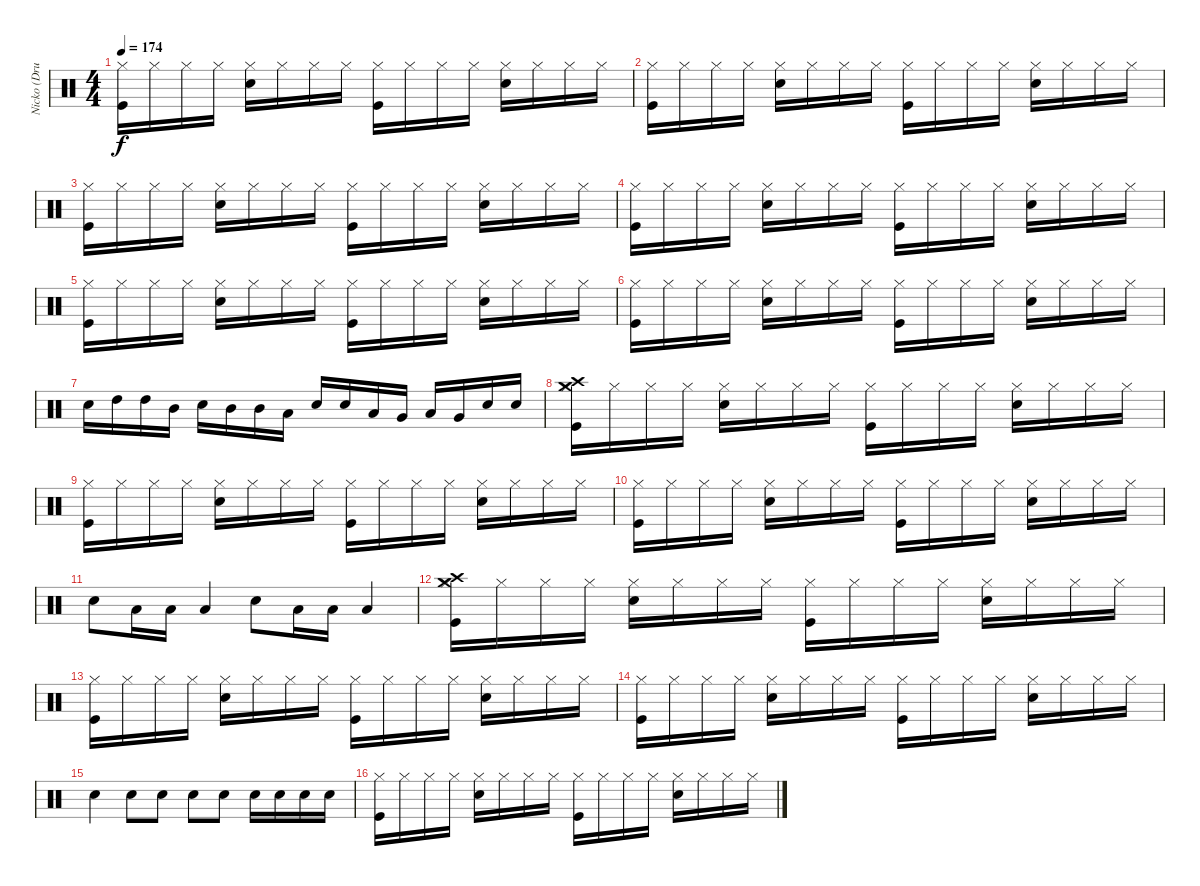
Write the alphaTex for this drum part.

\track ("Nicko (Drums)" "Nicko (Dru") {instrument percussion}
\staff {score}
\articulation defaults
\ts (4 4)
\tempo 174
\clef neutral
\ks c
("Hi-Hat (closed)" "Kick (hit)").16{dy f} "Hi-Hat (closed)".16 "Hi-Hat (closed)".16 "Hi-Hat (closed)".16 ("Hi-Hat (closed)" "Electric Snare (hit)").16 "Hi-Hat (closed)".16 "Hi-Hat (closed)".16 "Hi-Hat (closed)".16 ("Hi-Hat (closed)" "Kick (hit)").16 "Hi-Hat (closed)".16 "Hi-Hat (closed)".16 "Hi-Hat (closed)".16 ("Hi-Hat (closed)" "Electric Snare (hit)").16 "Hi-Hat (closed)".16 "Hi-Hat (closed)".16 "Hi-Hat (closed)".16 |
("Hi-Hat (closed)" "Kick (hit)").16 "Hi-Hat (closed)".16 "Hi-Hat (closed)".16 "Hi-Hat (closed)".16 ("Hi-Hat (closed)" "Electric Snare (hit)").16 "Hi-Hat (closed)".16 "Hi-Hat (closed)".16 "Hi-Hat (closed)".16 ("Hi-Hat (closed)" "Kick (hit)").16 "Hi-Hat (closed)".16 "Hi-Hat (closed)".16 "Hi-Hat (closed)".16 ("Hi-Hat (closed)" "Electric Snare (hit)").16 "Hi-Hat (closed)".16 "Hi-Hat (closed)".16 "Hi-Hat (closed)".16 |
("Hi-Hat (closed)" "Kick (hit)").16 "Hi-Hat (closed)".16 "Hi-Hat (closed)".16 "Hi-Hat (closed)".16 ("Hi-Hat (closed)" "Electric Snare (hit)").16 "Hi-Hat (closed)".16 "Hi-Hat (closed)".16 "Hi-Hat (closed)".16 ("Hi-Hat (closed)" "Kick (hit)").16 "Hi-Hat (closed)".16 "Hi-Hat (closed)".16 "Hi-Hat (closed)".16 ("Hi-Hat (closed)" "Electric Snare (hit)").16 "Hi-Hat (closed)".16 "Hi-Hat (closed)".16 "Hi-Hat (closed)".16 |
("Hi-Hat (closed)" "Kick (hit)").16 "Hi-Hat (closed)".16 "Hi-Hat (closed)".16 "Hi-Hat (closed)".16 ("Hi-Hat (closed)" "Electric Snare (hit)").16 "Hi-Hat (closed)".16 "Hi-Hat (closed)".16 "Hi-Hat (closed)".16 ("Hi-Hat (closed)" "Kick (hit)").16 "Hi-Hat (closed)".16 "Hi-Hat (closed)".16 "Hi-Hat (closed)".16 ("Hi-Hat (closed)" "Electric Snare (hit)").16 "Hi-Hat (closed)".16 "Hi-Hat (closed)".16 "Hi-Hat (closed)".16 |
("Hi-Hat (closed)" "Kick (hit)").16 "Hi-Hat (closed)".16 "Hi-Hat (closed)".16 "Hi-Hat (closed)".16 ("Hi-Hat (closed)" "Electric Snare (hit)").16 "Hi-Hat (closed)".16 "Hi-Hat (closed)".16 "Hi-Hat (closed)".16 ("Hi-Hat (closed)" "Kick (hit)").16 "Hi-Hat (closed)".16 "Hi-Hat (closed)".16 "Hi-Hat (closed)".16 ("Hi-Hat (closed)" "Electric Snare (hit)").16 "Hi-Hat (closed)".16 "Hi-Hat (closed)".16 "Hi-Hat (closed)".16 |
("Hi-Hat (closed)" "Kick (hit)").16 "Hi-Hat (closed)".16 "Hi-Hat (closed)".16 "Hi-Hat (closed)".16 ("Hi-Hat (closed)" "Electric Snare (hit)").16 "Hi-Hat (closed)".16 "Hi-Hat (closed)".16 "Hi-Hat (closed)".16 ("Hi-Hat (closed)" "Kick (hit)").16 "Hi-Hat (closed)".16 "Hi-Hat (closed)".16 "Hi-Hat (closed)".16 ("Hi-Hat (closed)" "Electric Snare (hit)").16 "Hi-Hat (closed)".16 "Hi-Hat (closed)".16 "Hi-Hat (closed)".16 |
"Electric Snare (hit)".16 "High Tom (hit)".16 "High Tom (hit)".16 "Mid Tom (hit)".16 "Electric Snare (hit)".16 "Mid Tom (hit)".16 "Mid Tom (hit)".16 "Low Tom (hit)".16 "Electric Snare (hit)".16 "Electric Snare (hit)".16 "Low Tom (hit)".16 "Very Low Tom (hit)".16 "Low Tom (hit)".16 "Very Low Tom (hit)".16 "Electric Snare (hit)".16 "Electric Snare (hit)".16 |
("Hi-Hat (closed)" "Crash medium (hit)" "Crash high (hit)" "Kick (hit)").16 "Hi-Hat (closed)".16 "Hi-Hat (closed)".16 "Hi-Hat (closed)".16 ("Hi-Hat (closed)" "Electric Snare (hit)").16 "Hi-Hat (closed)".16 "Hi-Hat (closed)".16 "Hi-Hat (closed)".16 ("Hi-Hat (closed)" "Kick (hit)").16 "Hi-Hat (closed)".16 "Hi-Hat (closed)".16 "Hi-Hat (closed)".16 ("Hi-Hat (closed)" "Electric Snare (hit)").16 "Hi-Hat (closed)".16 "Hi-Hat (closed)".16 "Hi-Hat (closed)".16 |
("Hi-Hat (closed)" "Kick (hit)").16 "Hi-Hat (closed)".16 "Hi-Hat (closed)".16 "Hi-Hat (closed)".16 ("Hi-Hat (closed)" "Electric Snare (hit)").16 "Hi-Hat (closed)".16 "Hi-Hat (closed)".16 "Hi-Hat (closed)".16 ("Hi-Hat (closed)" "Kick (hit)").16 "Hi-Hat (closed)".16 "Hi-Hat (closed)".16 "Hi-Hat (closed)".16 ("Hi-Hat (closed)" "Electric Snare (hit)").16 "Hi-Hat (closed)".16 "Hi-Hat (closed)".16 "Hi-Hat (closed)".16 |
("Hi-Hat (closed)" "Kick (hit)").16 "Hi-Hat (closed)".16 "Hi-Hat (closed)".16 "Hi-Hat (closed)".16 ("Hi-Hat (closed)" "Electric Snare (hit)").16 "Hi-Hat (closed)".16 "Hi-Hat (closed)".16 "Hi-Hat (closed)".16 ("Hi-Hat (closed)" "Kick (hit)").16 "Hi-Hat (closed)".16 "Hi-Hat (closed)".16 "Hi-Hat (closed)".16 ("Hi-Hat (closed)" "Electric Snare (hit)").16 "Hi-Hat (closed)".16 "Hi-Hat (closed)".16 "Hi-Hat (closed)".16 |
"Snare (hit) 2".8 "Low Tom (hit)".16 "Low Tom (hit)".16 "Low Tom (hit)".4 "Snare (hit) 2".8 "Low Tom (hit)".16 "Low Tom (hit)".16 "Low Tom (hit)".4 |
("Hi-Hat (closed)" "Crash high (hit)" "Crash medium (hit)" "Kick (hit)").16 "Hi-Hat (closed)".16 "Hi-Hat (closed)".16 "Hi-Hat (closed)".16 ("Hi-Hat (closed)" "Electric Snare (hit)").16 "Hi-Hat (closed)".16 "Hi-Hat (closed)".16 "Hi-Hat (closed)".16 ("Hi-Hat (closed)" "Kick (hit)").16 "Hi-Hat (closed)".16 "Hi-Hat (closed)".16 "Hi-Hat (closed)".16 ("Hi-Hat (closed)" "Electric Snare (hit)").16 "Hi-Hat (closed)".16 "Hi-Hat (closed)".16 "Hi-Hat (closed)".16 |
("Hi-Hat (closed)" "Kick (hit)").16 "Hi-Hat (closed)".16 "Hi-Hat (closed)".16 "Hi-Hat (closed)".16 ("Hi-Hat (closed)" "Electric Snare (hit)").16 "Hi-Hat (closed)".16 "Hi-Hat (closed)".16 "Hi-Hat (closed)".16 ("Hi-Hat (closed)" "Kick (hit)").16 "Hi-Hat (closed)".16 "Hi-Hat (closed)".16 "Hi-Hat (closed)".16 ("Hi-Hat (closed)" "Electric Snare (hit)").16 "Hi-Hat (closed)".16 "Hi-Hat (closed)".16 "Hi-Hat (closed)".16 |
("Hi-Hat (closed)" "Kick (hit)").16 "Hi-Hat (closed)".16 "Hi-Hat (closed)".16 "Hi-Hat (closed)".16 ("Hi-Hat (closed)" "Electric Snare (hit)").16 "Hi-Hat (closed)".16 "Hi-Hat (closed)".16 "Hi-Hat (closed)".16 ("Hi-Hat (closed)" "Kick (hit)").16 "Hi-Hat (closed)".16 "Hi-Hat (closed)".16 "Hi-Hat (closed)".16 ("Hi-Hat (closed)" "Electric Snare (hit)").16 "Hi-Hat (closed)".16 "Hi-Hat (closed)".16 "Hi-Hat (closed)".16 |
"Snare (hit) 2".4 "Snare (hit) 2".8 "Snare (hit) 2".8 "Snare (hit) 2".8 "Snare (hit) 2".8 "Snare (hit) 2".16 "Snare (hit) 2".16 "Snare (hit) 2".16 "Snare (hit) 2".16 |
("Hi-Hat (closed)" "Kick (hit)").16 "Hi-Hat (closed)".16 "Hi-Hat (closed)".16 "Hi-Hat (closed)".16 ("Hi-Hat (closed)" "Electric Snare (hit)").16 "Hi-Hat (closed)".16 "Hi-Hat (closed)".16 "Hi-Hat (closed)".16 ("Hi-Hat (closed)" "Kick (hit)").16 "Hi-Hat (closed)".16 "Hi-Hat (closed)".16 "Hi-Hat (closed)".16 ("Hi-Hat (closed)" "Electric Snare (hit)").16 "Hi-Hat (closed)".16 "Hi-Hat (closed)".16 "Hi-Hat (closed)".16
